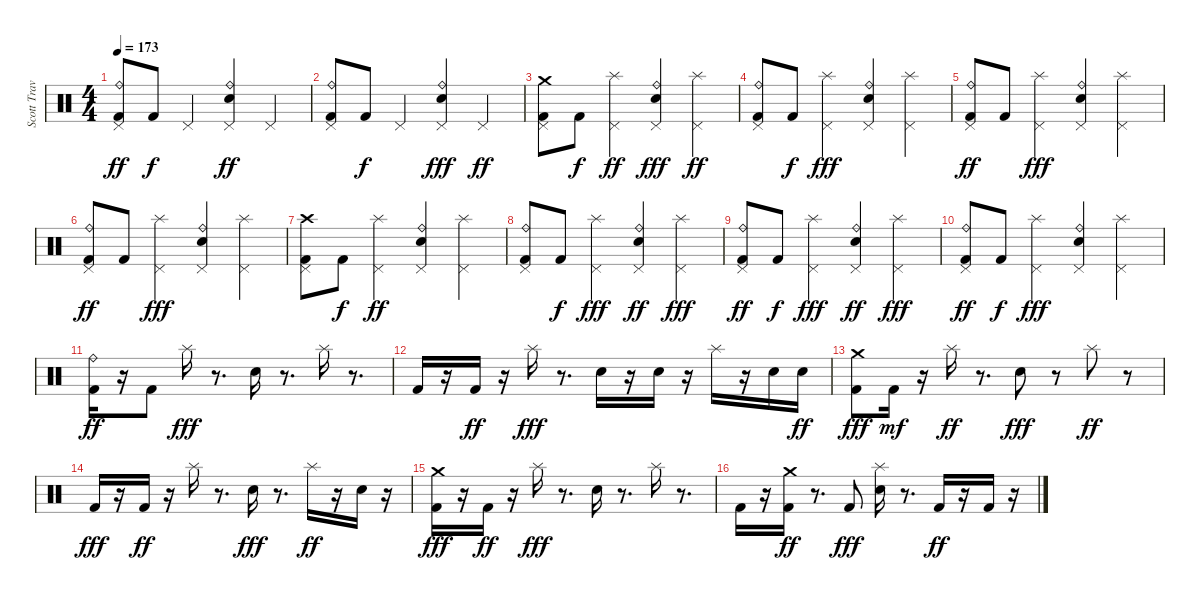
\track ("Scott Travis" "Scott Trav") {instrument percussion}
\staff {score}
\articulation defaults
\ts (4 4)
\tempo 173
\clef neutral
\ks c
("Pedal Hi-Hat (hit)" "Kick (hit) 2" "Ride (bell)").8{dy ff} "Kick (hit) 2".8{dy f} "Pedal Hi-Hat (hit)".4 ("Pedal Hi-Hat (hit)" "Snare (hit) 2" "Ride (bell)").4{dy ff} "Pedal Hi-Hat (hit)".4 |
("Pedal Hi-Hat (hit)" "Kick (hit) 2" "Ride (bell)").8 "Kick (hit) 2".8{dy f} "Pedal Hi-Hat (hit)".4 ("Pedal Hi-Hat (hit)" "Ride (bell)" "Snare (hit) 2").4{dy fff} "Pedal Hi-Hat (hit)".4{dy ff} |
("Pedal Hi-Hat (hit)" "Crash medium (hit)" "Kick (hit) 2").8 "Kick (hit) 2".8{dy f} ("Pedal Hi-Hat (hit)" "Splash (hit)").4{dy ff} ("Pedal Hi-Hat (hit)" "Ride (bell)" "Snare (hit) 2").4{dy fff} ("Pedal Hi-Hat (hit)" "Splash (hit)").4{dy ff} |
("Pedal Hi-Hat (hit)" "Ride (bell)" "Kick (hit) 2").8 "Kick (hit) 2".8{dy f} ("Pedal Hi-Hat (hit)" "Splash (hit)").4{dy fff} ("Pedal Hi-Hat (hit)" "Snare (hit) 2" "Ride (bell)").4 ("Pedal Hi-Hat (hit)" "Splash (hit)").4 |
("Pedal Hi-Hat (hit)" "Kick (hit) 2" "Ride (bell)").8{dy ff} "Kick (hit) 2".8 ("Pedal Hi-Hat (hit)" "Splash (hit)").4{dy fff} ("Pedal Hi-Hat (hit)" "Snare (hit) 2" "Ride (bell)").4 ("Pedal Hi-Hat (hit)" "Splash (hit)").4 |
("Pedal Hi-Hat (hit)" "Kick (hit) 2" "Ride (bell)").8{dy ff} "Kick (hit) 2".8 ("Pedal Hi-Hat (hit)" "Splash (hit)").4{dy fff} ("Pedal Hi-Hat (hit)" "Snare (hit) 2" "Ride (bell)").4 ("Pedal Hi-Hat (hit)" "Splash (hit)").4 |
("Pedal Hi-Hat (hit)" "Kick (hit) 2" "Crash high (hit)").8 "Kick (hit) 2".8{dy f} ("Pedal Hi-Hat (hit)" "Splash (hit)").4{dy ff} ("Pedal Hi-Hat (hit)" "Snare (hit) 2" "Ride (bell)").4 ("Pedal Hi-Hat (hit)" "Splash (hit)").4 |
("Pedal Hi-Hat (hit)" "Kick (hit) 2" "Ride (bell)").8 "Kick (hit) 2".8{dy f} ("Pedal Hi-Hat (hit)" "Splash (hit)").4{dy fff} ("Pedal Hi-Hat (hit)" "Snare (hit) 2" "Ride (bell)").4{dy ff} ("Pedal Hi-Hat (hit)" "Splash (hit)").4{dy fff} |
("Pedal Hi-Hat (hit)" "Kick (hit) 2" "Ride (bell)").8{dy ff} "Kick (hit) 2".8{dy f} ("Pedal Hi-Hat (hit)" "Splash (hit)").4{dy fff} ("Pedal Hi-Hat (hit)" "Snare (hit) 2" "Ride (bell)").4{dy ff} ("Pedal Hi-Hat (hit)" "Splash (hit)").4{dy fff} |
("Pedal Hi-Hat (hit)" "Kick (hit) 2" "Ride (bell)").8{dy ff} "Kick (hit) 2".8{dy f} ("Pedal Hi-Hat (hit)" "Splash (hit)").4{dy fff} ("Pedal Hi-Hat (hit)" "Ride (bell)" "Snare (hit) 2").4 ("Pedal Hi-Hat (hit)" "Splash (hit)").4 |
("Kick (hit) 2" "Ride (bell)").16{dy ff} r.16 "Kick (hit) 2".8 "Splash (hit)".16{dy fff} r.8{d} "Snare (hit) 2".16 r.8{d} "Splash (hit)".16 r.8{d} |
"Kick (hit) 2".16 r.16 "Kick (hit) 2".16{dy ff} r.16 "Splash (hit)".16{dy fff} r.8{d} "Snare (hit) 2".16 r.16 "Snare (hit) 2".16 r.16 "Splash (hit)".16 r.16 "Snare (hit) 2".16 "Snare (hit) 2".16{dy ff} |
("Crash medium (hit)" "Kick (hit) 2").8{dy fff} "Kick (hit) 2".16{dy mf} r.16 "Splash (hit)".16{dy ff} r.8{d} "Snare (hit) 2".8{dy fff} r.8 "Splash (hit)".8{dy ff} r.8 |
"Kick (hit) 2".16{dy fff} r.16 "Kick (hit) 2".16{dy ff} r.16 "Splash (hit)".16 r.8{d} "Snare (hit) 2".16{dy fff} r.8{d} "Splash (hit)".16{dy ff} r.16 "Snare (hit) 2".16 r.16 |
("Crash medium (hit)" "Kick (hit) 2").16{dy fff} r.16 "Kick (hit) 2".16{dy ff} r.16 "Splash (hit)".16{dy fff} r.8{d} "Snare (hit) 2".16 r.8{d} "Splash (hit)".16 r.8{d} |
"Kick (hit) 2".16 r.16 ("Kick (hit) 2" "Crash medium (hit)").16{dy ff} r.8{d} "Kick (hit) 2".8{dy fff} ("Snare (hit) 2" "Splash (hit)").16 r.8{d} "Kick (hit) 2".16{dy ff} r.16 "Kick (hit) 2".16 r.16
